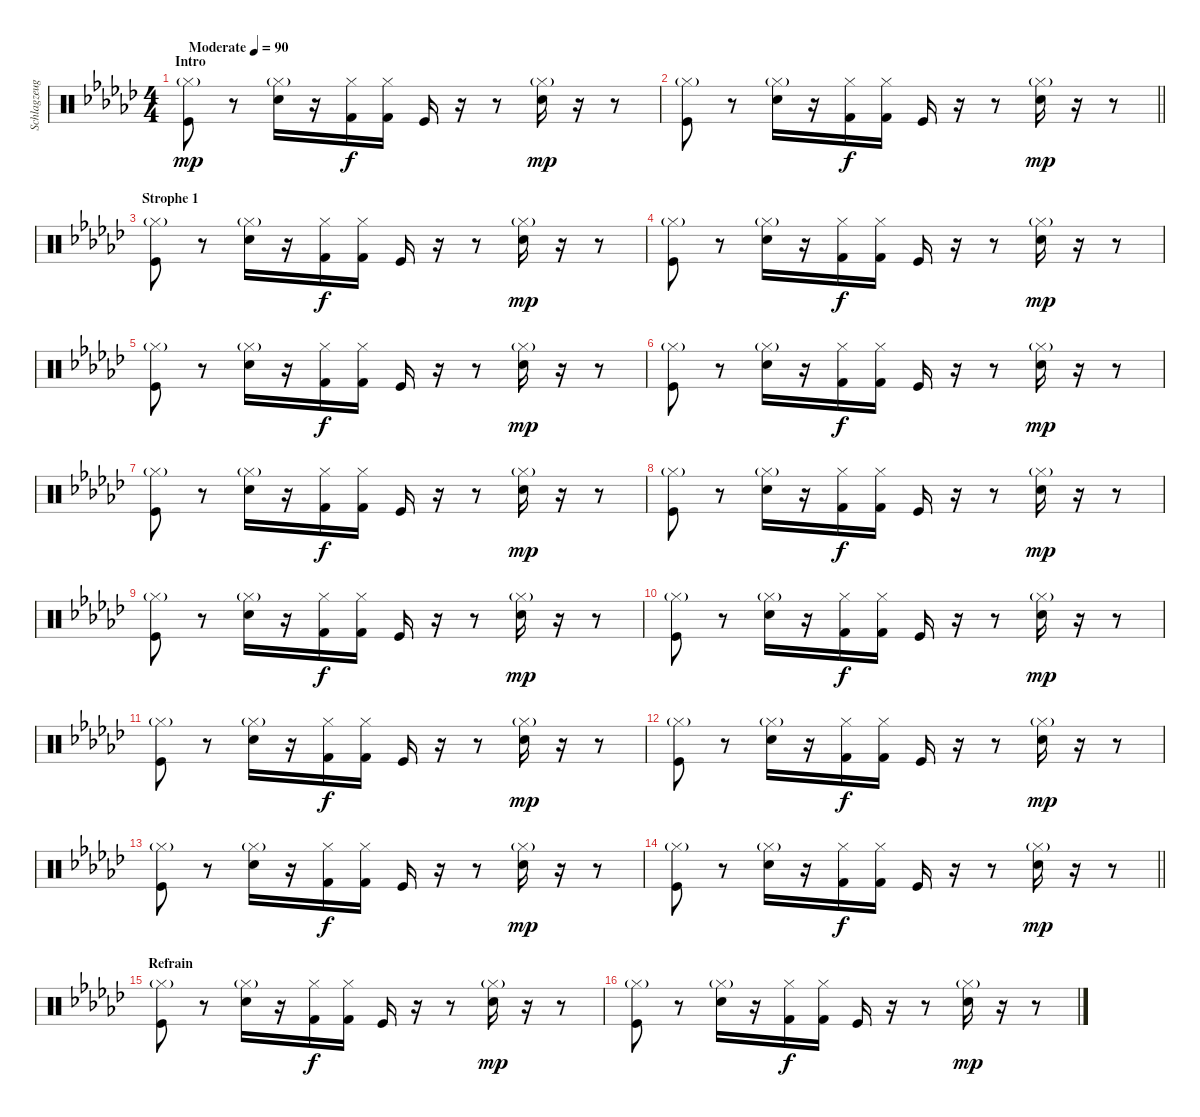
\track ("Schlagzeug" "Schlagzeug") {instrument percussion}
\staff {score}
\articulation defaults
\ts (4 4)
\section ("" "Intro")
\tempo (90 "Moderate")
\clef neutral
\ks ebminor
("Hi-Hat (closed)"{g} "Kick (hit)").8{dy mp} r.8 ("Hi-Hat (closed)"{g} "Electric Snare (hit)").16 r.16 ("Hi-Hat (closed)" "Kick (hit) 2").16{dy f} ("Hi-Hat (closed)" "Kick (hit) 2").16 "Kick (hit)".16 r.16 r.8 ("Hi-Hat (closed)"{g} "Electric Snare (hit)").16{dy mp} r.16 r.8 |
\barLineRight lightlight
("Hi-Hat (closed)"{g} "Kick (hit)").8 r.8 ("Hi-Hat (closed)"{g} "Electric Snare (hit)").16 r.16 ("Hi-Hat (closed)" "Kick (hit) 2").16{dy f} ("Hi-Hat (closed)" "Kick (hit) 2").16 "Kick (hit)".16 r.16 r.8 ("Hi-Hat (closed)"{g} "Electric Snare (hit)").16{dy mp} r.16 r.8 |
\section ("" "Strophe 1")
("Hi-Hat (closed)"{g} "Kick (hit)").8 r.8 ("Hi-Hat (closed)"{g} "Electric Snare (hit)").16 r.16 ("Hi-Hat (closed)" "Kick (hit) 2").16{dy f} ("Hi-Hat (closed)" "Kick (hit) 2").16 "Kick (hit)".16 r.16 r.8 ("Hi-Hat (closed)"{g} "Electric Snare (hit)").16{dy mp} r.16 r.8 |
("Hi-Hat (closed)"{g} "Kick (hit)").8 r.8 ("Hi-Hat (closed)"{g} "Electric Snare (hit)").16 r.16 ("Hi-Hat (closed)" "Kick (hit) 2").16{dy f} ("Hi-Hat (closed)" "Kick (hit) 2").16 "Kick (hit)".16 r.16 r.8 ("Hi-Hat (closed)"{g} "Electric Snare (hit)").16{dy mp} r.16 r.8 |
("Hi-Hat (closed)"{g} "Kick (hit)").8 r.8 ("Hi-Hat (closed)"{g} "Electric Snare (hit)").16 r.16 ("Hi-Hat (closed)" "Kick (hit) 2").16{dy f} ("Hi-Hat (closed)" "Kick (hit) 2").16 "Kick (hit)".16 r.16 r.8 ("Hi-Hat (closed)"{g} "Electric Snare (hit)").16{dy mp} r.16 r.8 |
("Hi-Hat (closed)"{g} "Kick (hit)").8 r.8 ("Hi-Hat (closed)"{g} "Electric Snare (hit)").16 r.16 ("Hi-Hat (closed)" "Kick (hit) 2").16{dy f} ("Hi-Hat (closed)" "Kick (hit) 2").16 "Kick (hit)".16 r.16 r.8 ("Hi-Hat (closed)"{g} "Electric Snare (hit)").16{dy mp} r.16 r.8 |
("Hi-Hat (closed)"{g} "Kick (hit)").8 r.8 ("Hi-Hat (closed)"{g} "Electric Snare (hit)").16 r.16 ("Hi-Hat (closed)" "Kick (hit) 2").16{dy f} ("Hi-Hat (closed)" "Kick (hit) 2").16 "Kick (hit)".16 r.16 r.8 ("Hi-Hat (closed)"{g} "Electric Snare (hit)").16{dy mp} r.16 r.8 |
("Hi-Hat (closed)"{g} "Kick (hit)").8 r.8 ("Hi-Hat (closed)"{g} "Electric Snare (hit)").16 r.16 ("Hi-Hat (closed)" "Kick (hit) 2").16{dy f} ("Hi-Hat (closed)" "Kick (hit) 2").16 "Kick (hit)".16 r.16 r.8 ("Hi-Hat (closed)"{g} "Electric Snare (hit)").16{dy mp} r.16 r.8 |
("Hi-Hat (closed)"{g} "Kick (hit)").8 r.8 ("Hi-Hat (closed)"{g} "Electric Snare (hit)").16 r.16 ("Hi-Hat (closed)" "Kick (hit) 2").16{dy f} ("Hi-Hat (closed)" "Kick (hit) 2").16 "Kick (hit)".16 r.16 r.8 ("Hi-Hat (closed)"{g} "Electric Snare (hit)").16{dy mp} r.16 r.8 |
("Hi-Hat (closed)"{g} "Kick (hit)").8 r.8 ("Hi-Hat (closed)"{g} "Electric Snare (hit)").16 r.16 ("Hi-Hat (closed)" "Kick (hit) 2").16{dy f} ("Hi-Hat (closed)" "Kick (hit) 2").16 "Kick (hit)".16 r.16 r.8 ("Hi-Hat (closed)"{g} "Electric Snare (hit)").16{dy mp} r.16 r.8 |
("Hi-Hat (closed)"{g} "Kick (hit)").8 r.8 ("Hi-Hat (closed)"{g} "Electric Snare (hit)").16 r.16 ("Hi-Hat (closed)" "Kick (hit) 2").16{dy f} ("Hi-Hat (closed)" "Kick (hit) 2").16 "Kick (hit)".16 r.16 r.8 ("Hi-Hat (closed)"{g} "Electric Snare (hit)").16{dy mp} r.16 r.8 |
("Hi-Hat (closed)"{g} "Kick (hit)").8 r.8 ("Hi-Hat (closed)"{g} "Electric Snare (hit)").16 r.16 ("Hi-Hat (closed)" "Kick (hit) 2").16{dy f} ("Hi-Hat (closed)" "Kick (hit) 2").16 "Kick (hit)".16 r.16 r.8 ("Hi-Hat (closed)"{g} "Electric Snare (hit)").16{dy mp} r.16 r.8 |
("Hi-Hat (closed)"{g} "Kick (hit)").8 r.8 ("Hi-Hat (closed)"{g} "Electric Snare (hit)").16 r.16 ("Hi-Hat (closed)" "Kick (hit) 2").16{dy f} ("Hi-Hat (closed)" "Kick (hit) 2").16 "Kick (hit)".16 r.16 r.8 ("Hi-Hat (closed)"{g} "Electric Snare (hit)").16{dy mp} r.16 r.8 |
\barLineRight lightlight
("Hi-Hat (closed)"{g} "Kick (hit)").8 r.8 ("Hi-Hat (closed)"{g} "Electric Snare (hit)").16 r.16 ("Hi-Hat (closed)" "Kick (hit) 2").16{dy f} ("Hi-Hat (closed)" "Kick (hit) 2").16 "Kick (hit)".16 r.16 r.8 ("Hi-Hat (closed)"{g} "Electric Snare (hit)").16{dy mp} r.16 r.8 |
\section ("" "Refrain")
("Hi-Hat (closed)"{g} "Kick (hit)").8 r.8 ("Hi-Hat (closed)"{g} "Electric Snare (hit)").16 r.16 ("Hi-Hat (closed)" "Kick (hit) 2").16{dy f} ("Hi-Hat (closed)" "Kick (hit) 2").16 "Kick (hit)".16 r.16 r.8 ("Hi-Hat (closed)"{g} "Electric Snare (hit)").16{dy mp} r.16 r.8 |
("Hi-Hat (closed)"{g} "Kick (hit)").8 r.8 ("Hi-Hat (closed)"{g} "Electric Snare (hit)").16 r.16 ("Hi-Hat (closed)" "Kick (hit) 2").16{dy f} ("Hi-Hat (closed)" "Kick (hit) 2").16 "Kick (hit)".16 r.16 r.8 ("Hi-Hat (closed)"{g} "Electric Snare (hit)").16{dy mp} r.16 r.8
